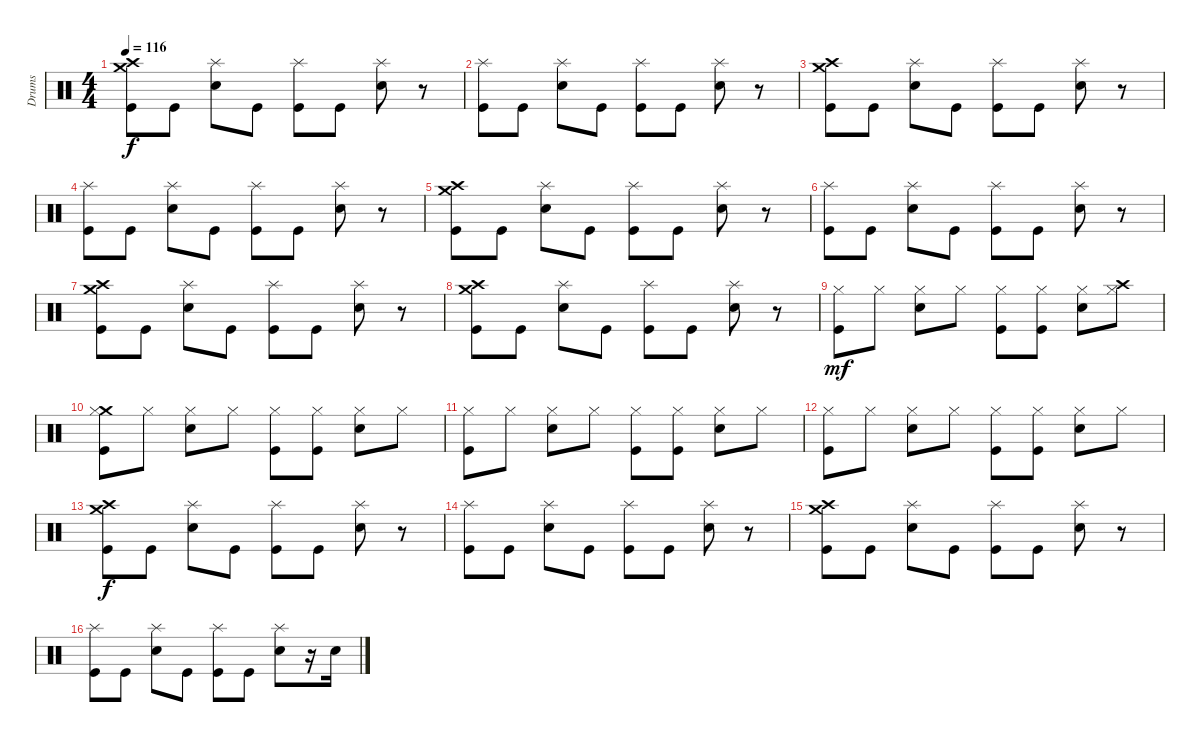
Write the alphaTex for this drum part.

\track ("Drums" "Drums") {instrument percussion}
\staff {score}
\articulation defaults
\ts (4 4)
\tempo 116
\clef neutral
\ks c
("Crash medium (hit)" "Crash high (hit)" "Kick (hit)").8{dy f} "Kick (hit)".8 ("Splash (hit)" "Electric Snare (hit)").8 "Kick (hit)".8 ("Splash (hit)" "Kick (hit)").8 "Kick (hit)".8 ("Splash (hit)" "Electric Snare (hit)").8 r.8 |
("Splash (hit)" "Kick (hit)").8 "Kick (hit)".8 ("Splash (hit)" "Electric Snare (hit)").8 "Kick (hit)".8 ("Splash (hit)" "Kick (hit)").8 "Kick (hit)".8 ("Splash (hit)" "Electric Snare (hit)").8 r.8 |
("Crash medium (hit)" "Crash high (hit)" "Kick (hit)").8 "Kick (hit)".8 ("Splash (hit)" "Electric Snare (hit)").8 "Kick (hit)".8 ("Splash (hit)" "Kick (hit)").8 "Kick (hit)".8 ("Splash (hit)" "Electric Snare (hit)").8 r.8 |
("Splash (hit)" "Kick (hit)").8 "Kick (hit)".8 ("Splash (hit)" "Electric Snare (hit)").8 "Kick (hit)".8 ("Splash (hit)" "Kick (hit)").8 "Kick (hit)".8 ("Splash (hit)" "Electric Snare (hit)").8 r.8 |
("Crash medium (hit)" "Crash high (hit)" "Kick (hit)").8 "Kick (hit)".8 ("Splash (hit)" "Electric Snare (hit)").8 "Kick (hit)".8 ("Splash (hit)" "Kick (hit)").8 "Kick (hit)".8 ("Splash (hit)" "Electric Snare (hit)").8 r.8 |
("Splash (hit)" "Kick (hit)").8 "Kick (hit)".8 ("Splash (hit)" "Electric Snare (hit)").8 "Kick (hit)".8 ("Splash (hit)" "Kick (hit)").8 "Kick (hit)".8 ("Splash (hit)" "Electric Snare (hit)").8 r.8 |
("Crash medium (hit)" "Crash high (hit)" "Kick (hit)").8 "Kick (hit)".8 ("Splash (hit)" "Electric Snare (hit)").8 "Kick (hit)".8 ("Splash (hit)" "Kick (hit)").8 "Kick (hit)".8 ("Splash (hit)" "Electric Snare (hit)").8 r.8 |
("Crash medium (hit)" "Crash high (hit)" "Kick (hit)").8 "Kick (hit)".8 ("Splash (hit)" "Electric Snare (hit)").8 "Kick (hit)".8 ("Splash (hit)" "Kick (hit)").8 "Kick (hit)".8 ("Splash (hit)" "Electric Snare (hit)").8 r.8 |
("Hi-Hat (closed)" "Kick (hit)").8{dy mf} "Hi-Hat (closed)".8 ("Hi-Hat (closed)" "Electric Snare (hit)").8 "Hi-Hat (closed)".8 ("Hi-Hat (closed)" "Kick (hit)").8 ("Hi-Hat (closed)" "Kick (hit)").8 ("Hi-Hat (closed)" "Electric Snare (hit)").8 ("Crash high (hit)" "Hi-Hat (closed)").8 |
("Crash medium (hit)" "Hi-Hat (closed)" "Kick (hit)").8 "Hi-Hat (closed)".8 ("Hi-Hat (closed)" "Electric Snare (hit)").8 "Hi-Hat (closed)".8 ("Hi-Hat (closed)" "Kick (hit)").8 ("Hi-Hat (closed)" "Kick (hit)").8 ("Hi-Hat (closed)" "Electric Snare (hit)").8 "Hi-Hat (closed)".8 |
("Hi-Hat (closed)" "Kick (hit)").8 "Hi-Hat (closed)".8 ("Hi-Hat (closed)" "Electric Snare (hit)").8 "Hi-Hat (closed)".8 ("Hi-Hat (closed)" "Kick (hit)").8 ("Hi-Hat (closed)" "Kick (hit)").8 ("Hi-Hat (closed)" "Electric Snare (hit)").8 "Hi-Hat (closed)".8 |
("Hi-Hat (closed)" "Kick (hit)").8 "Hi-Hat (closed)".8 ("Hi-Hat (closed)" "Electric Snare (hit)").8 "Hi-Hat (closed)".8 ("Hi-Hat (closed)" "Kick (hit)").8 ("Hi-Hat (closed)" "Kick (hit)").8 ("Hi-Hat (closed)" "Electric Snare (hit)").8 "Hi-Hat (closed)".8 |
("Crash medium (hit)" "Crash high (hit)" "Kick (hit)").8{dy f} "Kick (hit)".8 ("Splash (hit)" "Electric Snare (hit)").8 "Kick (hit)".8 ("Splash (hit)" "Kick (hit)").8 "Kick (hit)".8 ("Splash (hit)" "Electric Snare (hit)").8 r.8 |
("Splash (hit)" "Kick (hit)").8 "Kick (hit)".8 ("Splash (hit)" "Electric Snare (hit)").8 "Kick (hit)".8 ("Splash (hit)" "Kick (hit)").8 "Kick (hit)".8 ("Splash (hit)" "Electric Snare (hit)").8 r.8 |
("Crash medium (hit)" "Crash high (hit)" "Kick (hit)").8 "Kick (hit)".8 ("Splash (hit)" "Electric Snare (hit)").8 "Kick (hit)".8 ("Splash (hit)" "Kick (hit)").8 "Kick (hit)".8 ("Splash (hit)" "Electric Snare (hit)").8 r.8 |
("Splash (hit)" "Kick (hit)").8 "Kick (hit)".8 ("Splash (hit)" "Electric Snare (hit)").8 "Kick (hit)".8 ("Splash (hit)" "Kick (hit)").8 "Kick (hit)".8 ("Splash (hit)" "Electric Snare (hit)").8 r.16 "Electric Snare (hit)".16
